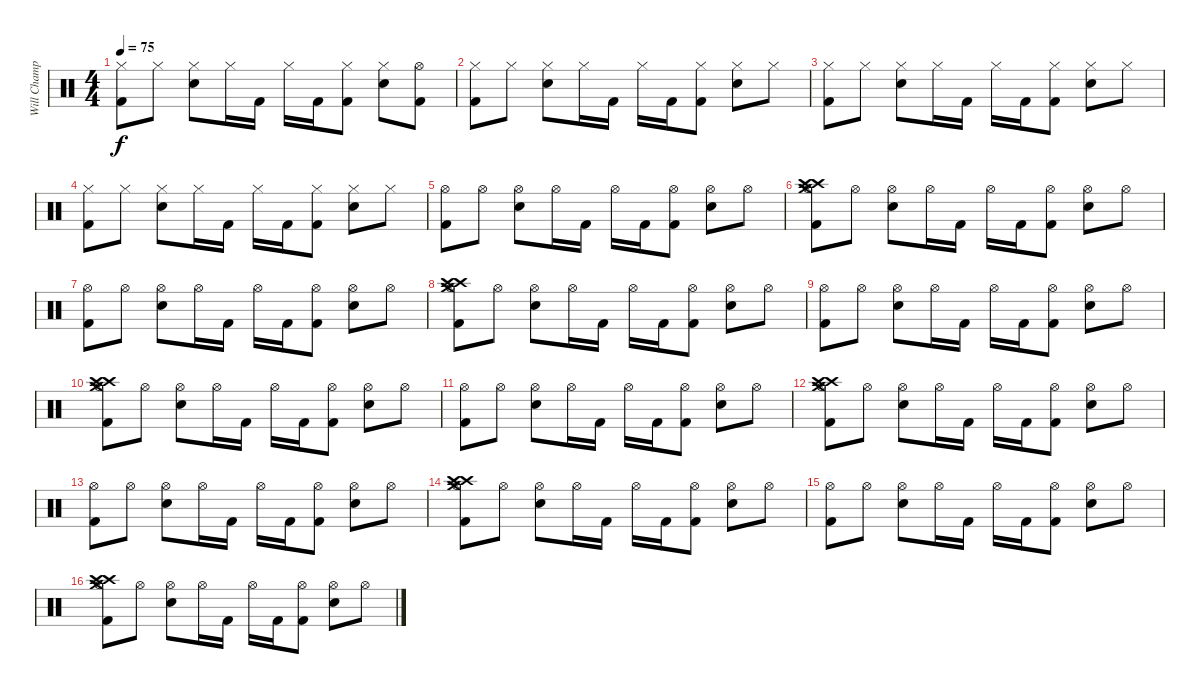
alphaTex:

\track ("Will Champion(Drums)" "Will Champ") {instrument percussion}
\staff {score}
\articulation defaults
\ts (4 4)
\tempo 75
\clef neutral
\ks c
("Hi-Hat (closed)" "Kick (hit) 2").8{dy f} "Hi-Hat (closed)".8 ("Hi-Hat (closed)" "Electric Snare (hit)").8 "Hi-Hat (closed)".16 "Kick (hit) 2".16 "Hi-Hat (closed)".16 "Kick (hit) 2".16 ("Hi-Hat (closed)" "Kick (hit) 2").8 ("Hi-Hat (closed)" "Electric Snare (hit)").8 ("Hi-Hat (open)" "Kick (hit) 2").8 |
("Hi-Hat (closed)" "Kick (hit) 2").8 "Hi-Hat (closed)".8 ("Hi-Hat (closed)" "Electric Snare (hit)").8 "Hi-Hat (closed)".16 "Kick (hit) 2".16 "Hi-Hat (closed)".16 "Kick (hit) 2".16 ("Hi-Hat (closed)" "Kick (hit) 2").8 ("Hi-Hat (closed)" "Electric Snare (hit)").8 "Hi-Hat (closed)".8 |
("Hi-Hat (closed)" "Kick (hit) 2").8 "Hi-Hat (closed)".8 ("Hi-Hat (closed)" "Electric Snare (hit)").8 "Hi-Hat (closed)".16 "Kick (hit) 2".16 "Hi-Hat (closed)".16 "Kick (hit) 2".16 ("Hi-Hat (closed)" "Kick (hit) 2").8 ("Hi-Hat (closed)" "Electric Snare (hit)").8 "Hi-Hat (closed)".8 |
("Hi-Hat (closed)" "Kick (hit) 2").8 "Hi-Hat (closed)".8 ("Hi-Hat (closed)" "Electric Snare (hit)").8 "Hi-Hat (closed)".16 "Kick (hit) 2".16 "Hi-Hat (closed)".16 "Kick (hit) 2".16 ("Hi-Hat (closed)" "Kick (hit) 2").8 ("Hi-Hat (closed)" "Electric Snare (hit)").8 "Hi-Hat (closed)".8 |
("Hi-Hat (open)" "Kick (hit) 2").8 "Hi-Hat (open)".8 ("Hi-Hat (open)" "Electric Snare (hit)").8 "Hi-Hat (open)".16 "Kick (hit) 2".16 "Hi-Hat (open)".16 "Kick (hit) 2".16 ("Hi-Hat (open)" "Kick (hit) 2").8 ("Hi-Hat (open)" "Electric Snare (hit)").8 "Hi-Hat (open)".8 |
("Crash high (hit)" "Crash medium (hit)" "Crash high (hit)" "Hi-Hat (open)" "Kick (hit) 2").8 "Hi-Hat (open)".8 ("Hi-Hat (open)" "Electric Snare (hit)").8 "Hi-Hat (open)".16 "Kick (hit) 2".16 "Hi-Hat (open)".16 "Kick (hit) 2".16 ("Hi-Hat (open)" "Kick (hit) 2").8 ("Hi-Hat (open)" "Electric Snare (hit)").8 "Hi-Hat (open)".8 |
("Hi-Hat (open)" "Kick (hit) 2").8 "Hi-Hat (open)".8 ("Hi-Hat (open)" "Electric Snare (hit)").8 "Hi-Hat (open)".16 "Kick (hit) 2".16 "Hi-Hat (open)".16 "Kick (hit) 2".16 ("Hi-Hat (open)" "Kick (hit) 2").8 ("Hi-Hat (open)" "Electric Snare (hit)").8 "Hi-Hat (open)".8 |
("Crash high (hit)" "Crash medium (hit)" "Crash high (hit)" "Hi-Hat (open)" "Kick (hit) 2").8 "Hi-Hat (open)".8 ("Hi-Hat (open)" "Electric Snare (hit)").8 "Hi-Hat (open)".16 "Kick (hit) 2".16 "Hi-Hat (open)".16 "Kick (hit) 2".16 ("Hi-Hat (open)" "Kick (hit) 2").8 ("Hi-Hat (open)" "Electric Snare (hit)").8 "Hi-Hat (open)".8 |
("Hi-Hat (open)" "Kick (hit) 2").8 "Hi-Hat (open)".8 ("Hi-Hat (open)" "Electric Snare (hit)").8 "Hi-Hat (open)".16 "Kick (hit) 2".16 "Hi-Hat (open)".16 "Kick (hit) 2".16 ("Hi-Hat (open)" "Kick (hit) 2").8 ("Hi-Hat (open)" "Electric Snare (hit)").8 "Hi-Hat (open)".8 |
("Crash high (hit)" "Crash medium (hit)" "Crash high (hit)" "Hi-Hat (open)" "Kick (hit) 2").8 "Hi-Hat (open)".8 ("Hi-Hat (open)" "Electric Snare (hit)").8 "Hi-Hat (open)".16 "Kick (hit) 2".16 "Hi-Hat (open)".16 "Kick (hit) 2".16 ("Hi-Hat (open)" "Kick (hit) 2").8 ("Hi-Hat (open)" "Electric Snare (hit)").8 "Hi-Hat (open)".8 |
("Hi-Hat (open)" "Kick (hit) 2").8 "Hi-Hat (open)".8 ("Hi-Hat (open)" "Electric Snare (hit)").8 "Hi-Hat (open)".16 "Kick (hit) 2".16 "Hi-Hat (open)".16 "Kick (hit) 2".16 ("Hi-Hat (open)" "Kick (hit) 2").8 ("Hi-Hat (open)" "Electric Snare (hit)").8 "Hi-Hat (open)".8 |
("Crash high (hit)" "Crash medium (hit)" "Crash high (hit)" "Hi-Hat (open)" "Kick (hit) 2").8 "Hi-Hat (open)".8 ("Hi-Hat (open)" "Electric Snare (hit)").8 "Hi-Hat (open)".16 "Kick (hit) 2".16 "Hi-Hat (open)".16 "Kick (hit) 2".16 ("Hi-Hat (open)" "Kick (hit) 2").8 ("Hi-Hat (open)" "Electric Snare (hit)").8 "Hi-Hat (open)".8 |
("Hi-Hat (open)" "Kick (hit) 2").8 "Hi-Hat (open)".8 ("Hi-Hat (open)" "Electric Snare (hit)").8 "Hi-Hat (open)".16 "Kick (hit) 2".16 "Hi-Hat (open)".16 "Kick (hit) 2".16 ("Hi-Hat (open)" "Kick (hit) 2").8 ("Hi-Hat (open)" "Electric Snare (hit)").8 "Hi-Hat (open)".8 |
("Crash high (hit)" "Crash medium (hit)" "Crash high (hit)" "Hi-Hat (open)" "Kick (hit) 2").8 "Hi-Hat (open)".8 ("Hi-Hat (open)" "Electric Snare (hit)").8 "Hi-Hat (open)".16 "Kick (hit) 2".16 "Hi-Hat (open)".16 "Kick (hit) 2".16 ("Hi-Hat (open)" "Kick (hit) 2").8 ("Hi-Hat (open)" "Electric Snare (hit)").8 "Hi-Hat (open)".8 |
("Hi-Hat (open)" "Kick (hit) 2").8 "Hi-Hat (open)".8 ("Hi-Hat (open)" "Electric Snare (hit)").8 "Hi-Hat (open)".16 "Kick (hit) 2".16 "Hi-Hat (open)".16 "Kick (hit) 2".16 ("Hi-Hat (open)" "Kick (hit) 2").8 ("Hi-Hat (open)" "Electric Snare (hit)").8 "Hi-Hat (open)".8 |
("Crash high (hit)" "Crash medium (hit)" "Crash high (hit)" "Hi-Hat (open)" "Kick (hit) 2").8 "Hi-Hat (open)".8 ("Hi-Hat (open)" "Electric Snare (hit)").8 "Hi-Hat (open)".16 "Kick (hit) 2".16 "Hi-Hat (open)".16 "Kick (hit) 2".16 ("Hi-Hat (open)" "Kick (hit) 2").8 ("Hi-Hat (open)" "Electric Snare (hit)").8 "Hi-Hat (open)".8
